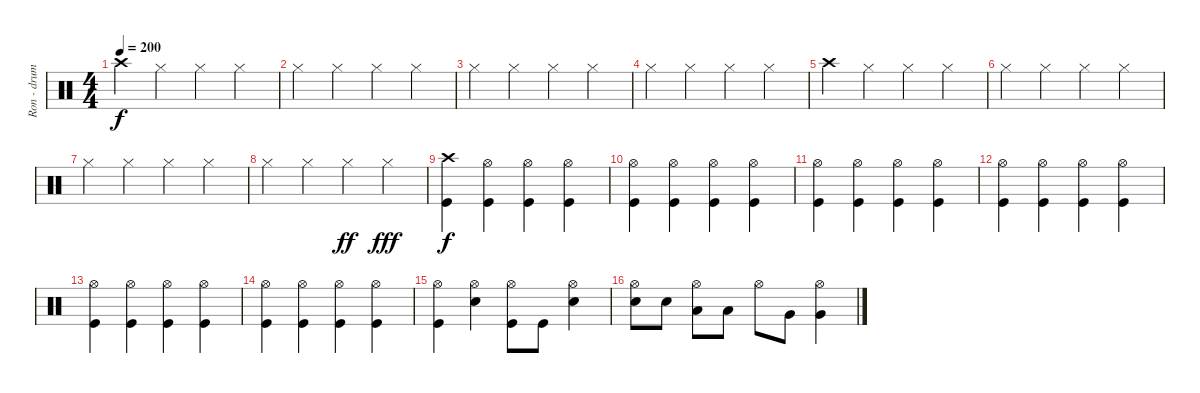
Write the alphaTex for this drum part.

\track ("Ron - drums" "Ron - drum") {instrument percussion}
\staff {score}
\articulation defaults
\ts (4 4)
\tempo 200
\clef neutral
\ks c "Crash high (hit)".4{dy f} "Hi-Hat (closed)".4 "Hi-Hat (closed)".4 "Hi-Hat (closed)".4
|
"Hi-Hat (closed)".4 "Hi-Hat (closed)".4 "Hi-Hat (closed)".4 "Hi-Hat (closed)".4 |
"Hi-Hat (closed)".4 "Hi-Hat (closed)".4 "Hi-Hat (closed)".4 "Hi-Hat (closed)".4 |
"Hi-Hat (closed)".4 "Hi-Hat (closed)".4 "Hi-Hat (closed)".4 "Hi-Hat (closed)".4 |
"Crash high (hit)".4 "Hi-Hat (closed)".4 "Hi-Hat (closed)".4 "Hi-Hat (closed)".4 |
"Hi-Hat (closed)".4 "Hi-Hat (closed)".4 "Hi-Hat (closed)".4 "Hi-Hat (closed)".4 |
"Hi-Hat (closed)".4 "Hi-Hat (closed)".4 "Hi-Hat (closed)".4 "Hi-Hat (closed)".4 |
"Hi-Hat (closed)".4 "Hi-Hat (closed)".4 "Hi-Hat (closed)".4{dy ff} "Hi-Hat (closed)".4{dy fff} |
("Crash high (hit)" "Kick (hit)").4{dy f} ("Hi-Hat (open)" "Kick (hit)").4 ("Hi-Hat (open)" "Kick (hit)").4 ("Hi-Hat (open)" "Kick (hit)").4 |
("Hi-Hat (open)" "Kick (hit)").4 ("Hi-Hat (open)" "Kick (hit)").4 ("Hi-Hat (open)" "Kick (hit)").4 ("Hi-Hat (open)" "Kick (hit)").4 |
("Hi-Hat (open)" "Kick (hit)").4 ("Hi-Hat (open)" "Kick (hit)").4 ("Hi-Hat (open)" "Kick (hit)").4 ("Hi-Hat (open)" "Kick (hit)").4 |
("Hi-Hat (open)" "Kick (hit)").4 ("Hi-Hat (open)" "Kick (hit)").4 ("Hi-Hat (open)" "Kick (hit)").4 ("Hi-Hat (open)" "Kick (hit)").4 |
("Hi-Hat (open)" "Kick (hit)").4 ("Hi-Hat (open)" "Kick (hit)").4 ("Hi-Hat (open)" "Kick (hit)").4 ("Hi-Hat (open)" "Kick (hit)").4 |
("Hi-Hat (open)" "Kick (hit)").4 ("Hi-Hat (open)" "Kick (hit)").4 ("Hi-Hat (open)" "Kick (hit)").4 ("Hi-Hat (open)" "Kick (hit)").4 |
("Hi-Hat (open)" "Kick (hit)").4 ("Hi-Hat (open)" "Snare (hit) 2").4 ("Hi-Hat (open)" "Kick (hit)").8 "Kick (hit)".8 ("Hi-Hat (open)" "Snare (hit) 2").4 |
("Hi-Hat (open)" "Snare (hit) 2").8 "Snare (hit) 2".8 ("Hi-Hat (open)" "Low Tom (hit)").8 "Low Tom (hit)".8 "Hi-Hat (open)".8 "Very Low Tom (hit)".8 ("Hi-Hat (open)" "Very Low Tom (hit)").4
